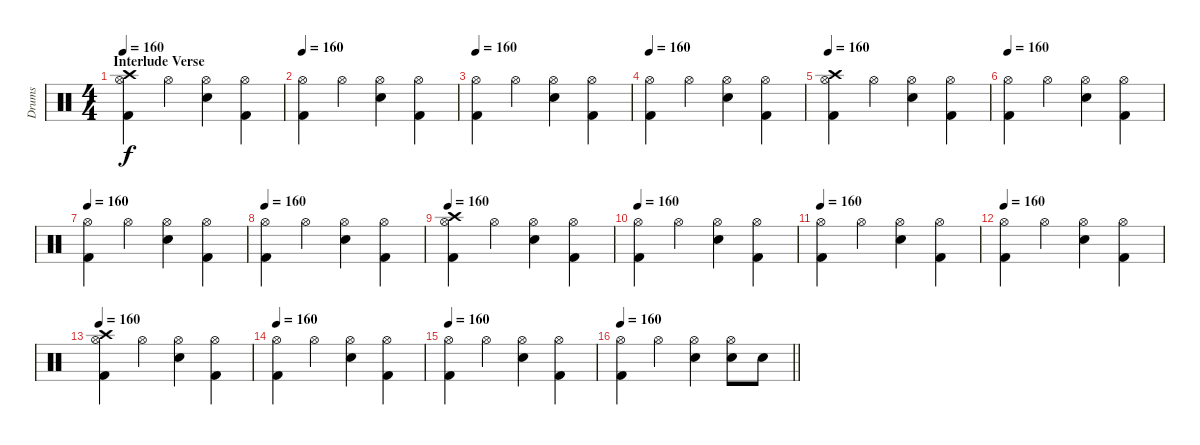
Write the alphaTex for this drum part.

\track ("Drums" "Drums") {instrument percussion}
\staff {score}
\articulation defaults
\ts (4 4)
\section ("" "Interlude Verse")
\tempo 160
\clef neutral
\ks c
("Crash high (hit)" "Hi-Hat (open)" "Kick (hit) 2").4{dy f} "Hi-Hat (open)".4 ("Hi-Hat (open)" "Snare (hit) 2").4 ("Hi-Hat (open)" "Kick (hit) 2").4 |
\tempo 160
("Hi-Hat (open)" "Kick (hit) 2").4 "Hi-Hat (open)".4 ("Hi-Hat (open)" "Snare (hit) 2").4 ("Hi-Hat (open)" "Kick (hit) 2").4 |
\tempo 160
("Hi-Hat (open)" "Kick (hit) 2").4 "Hi-Hat (open)".4 ("Hi-Hat (open)" "Snare (hit) 2").4 ("Hi-Hat (open)" "Kick (hit) 2").4 |
\tempo 160
("Hi-Hat (open)" "Kick (hit) 2").4 "Hi-Hat (open)".4 ("Hi-Hat (open)" "Snare (hit) 2").4 ("Hi-Hat (open)" "Kick (hit) 2").4 |
\tempo 160
("Crash high (hit)" "Hi-Hat (open)" "Kick (hit) 2").4 "Hi-Hat (open)".4 ("Hi-Hat (open)" "Snare (hit) 2").4 ("Hi-Hat (open)" "Kick (hit) 2").4 |
\tempo 160
("Hi-Hat (open)" "Kick (hit) 2").4 "Hi-Hat (open)".4 ("Hi-Hat (open)" "Snare (hit) 2").4 ("Hi-Hat (open)" "Kick (hit) 2").4 |
\tempo 160
("Hi-Hat (open)" "Kick (hit) 2").4 "Hi-Hat (open)".4 ("Hi-Hat (open)" "Snare (hit) 2").4 ("Hi-Hat (open)" "Kick (hit) 2").4 |
\tempo 160
("Hi-Hat (open)" "Kick (hit) 2").4 "Hi-Hat (open)".4 ("Hi-Hat (open)" "Snare (hit) 2").4 ("Hi-Hat (open)" "Kick (hit) 2").4 |
\tempo 160
("Crash high (hit)" "Hi-Hat (open)" "Kick (hit) 2").4 "Hi-Hat (open)".4 ("Hi-Hat (open)" "Snare (hit) 2").4 ("Hi-Hat (open)" "Kick (hit) 2").4 |
\tempo 160
("Hi-Hat (open)" "Kick (hit) 2").4 "Hi-Hat (open)".4 ("Hi-Hat (open)" "Snare (hit) 2").4 ("Hi-Hat (open)" "Kick (hit) 2").4 |
\tempo 160
("Hi-Hat (open)" "Kick (hit) 2").4 "Hi-Hat (open)".4 ("Hi-Hat (open)" "Snare (hit) 2").4 ("Hi-Hat (open)" "Kick (hit) 2").4 |
\tempo 160
("Hi-Hat (open)" "Kick (hit) 2").4 "Hi-Hat (open)".4 ("Hi-Hat (open)" "Snare (hit) 2").4 ("Hi-Hat (open)" "Kick (hit) 2").4 |
\tempo 160
("Crash high (hit)" "Hi-Hat (open)" "Kick (hit) 2").4 "Hi-Hat (open)".4 ("Hi-Hat (open)" "Snare (hit) 2").4 ("Hi-Hat (open)" "Kick (hit) 2").4 |
\tempo 160
("Hi-Hat (open)" "Kick (hit) 2").4 "Hi-Hat (open)".4 ("Hi-Hat (open)" "Snare (hit) 2").4 ("Hi-Hat (open)" "Kick (hit) 2").4 |
\tempo 160
("Hi-Hat (open)" "Kick (hit) 2").4 "Hi-Hat (open)".4 ("Hi-Hat (open)" "Snare (hit) 2").4 ("Hi-Hat (open)" "Kick (hit) 2").4 |
\tempo 160
\barLineRight lightlight
("Hi-Hat (open)" "Kick (hit) 2").4 "Hi-Hat (open)".4 ("Hi-Hat (open)" "Snare (hit) 2").4 ("Hi-Hat (open)" "Snare (hit) 2").8 "Snare (hit) 2".8
